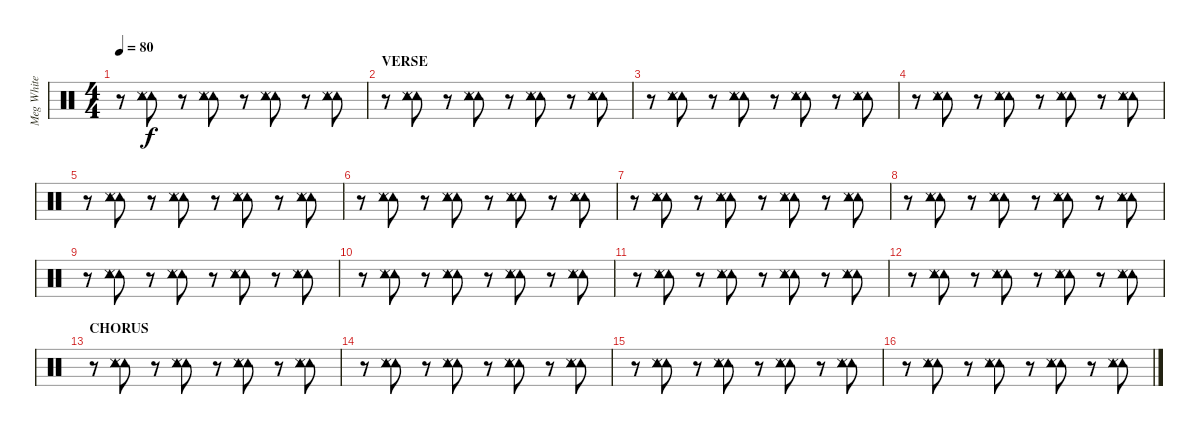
\track ("Meg White (Tambourine)" "Meg White ") {instrument percussion}
\staff {score}
\articulation defaults
\ts (4 4)
\tempo 80
\clef neutral
\ks c
r.8{dy f} ("Tambourine (hit)" "Tambourine (hit)" "Metronome (hit)").8 r.8 ("Tambourine (hit)" "Tambourine (hit)" "Metronome (hit)").8 r.8 ("Tambourine (hit)" "Tambourine (hit)" "Metronome (hit)").8 r.8 ("Tambourine (hit)" "Tambourine (hit)" "Metronome (hit)").8 |
\section ("" "VERSE")
r.8 ("Tambourine (hit)" "Tambourine (hit)" "Metronome (hit)").8 r.8 ("Tambourine (hit)" "Tambourine (hit)" "Metronome (hit)").8 r.8 ("Tambourine (hit)" "Tambourine (hit)" "Metronome (hit)").8 r.8 ("Tambourine (hit)" "Tambourine (hit)" "Metronome (hit)").8 |
r.8 ("Tambourine (hit)" "Tambourine (hit)" "Metronome (hit)").8 r.8 ("Tambourine (hit)" "Tambourine (hit)" "Metronome (hit)").8 r.8 ("Tambourine (hit)" "Tambourine (hit)" "Metronome (hit)").8 r.8 ("Tambourine (hit)" "Tambourine (hit)" "Metronome (hit)").8 |
r.8 ("Tambourine (hit)" "Tambourine (hit)" "Metronome (hit)").8 r.8 ("Tambourine (hit)" "Tambourine (hit)" "Metronome (hit)").8 r.8 ("Tambourine (hit)" "Tambourine (hit)" "Metronome (hit)").8 r.8 ("Tambourine (hit)" "Tambourine (hit)" "Metronome (hit)").8 |
r.8 ("Tambourine (hit)" "Tambourine (hit)" "Metronome (hit)").8 r.8 ("Tambourine (hit)" "Tambourine (hit)" "Metronome (hit)").8 r.8 ("Tambourine (hit)" "Tambourine (hit)" "Metronome (hit)").8 r.8 ("Tambourine (hit)" "Tambourine (hit)" "Metronome (hit)").8 |
r.8 ("Tambourine (hit)" "Tambourine (hit)" "Metronome (hit)").8 r.8 ("Tambourine (hit)" "Tambourine (hit)" "Metronome (hit)").8 r.8 ("Tambourine (hit)" "Tambourine (hit)" "Metronome (hit)").8 r.8 ("Tambourine (hit)" "Tambourine (hit)" "Metronome (hit)").8 |
r.8 ("Tambourine (hit)" "Tambourine (hit)" "Metronome (hit)").8 r.8 ("Tambourine (hit)" "Tambourine (hit)" "Metronome (hit)").8 r.8 ("Tambourine (hit)" "Tambourine (hit)" "Metronome (hit)").8 r.8 ("Tambourine (hit)" "Tambourine (hit)" "Metronome (hit)").8 |
r.8 ("Tambourine (hit)" "Tambourine (hit)" "Metronome (hit)").8 r.8 ("Tambourine (hit)" "Tambourine (hit)" "Metronome (hit)").8 r.8 ("Tambourine (hit)" "Tambourine (hit)" "Metronome (hit)").8 r.8 ("Tambourine (hit)" "Tambourine (hit)" "Metronome (hit)").8 |
r.8 ("Tambourine (hit)" "Tambourine (hit)" "Metronome (hit)").8 r.8 ("Tambourine (hit)" "Tambourine (hit)" "Metronome (hit)").8 r.8 ("Tambourine (hit)" "Tambourine (hit)" "Metronome (hit)").8 r.8 ("Tambourine (hit)" "Tambourine (hit)" "Metronome (hit)").8 |
r.8 ("Tambourine (hit)" "Tambourine (hit)" "Metronome (hit)").8 r.8 ("Tambourine (hit)" "Tambourine (hit)" "Metronome (hit)").8 r.8 ("Tambourine (hit)" "Tambourine (hit)" "Metronome (hit)").8 r.8 ("Tambourine (hit)" "Tambourine (hit)" "Metronome (hit)").8 |
r.8 ("Tambourine (hit)" "Tambourine (hit)" "Metronome (hit)").8 r.8 ("Tambourine (hit)" "Tambourine (hit)" "Metronome (hit)").8 r.8 ("Tambourine (hit)" "Tambourine (hit)" "Metronome (hit)").8 r.8 ("Tambourine (hit)" "Tambourine (hit)" "Metronome (hit)").8 |
r.8 ("Tambourine (hit)" "Tambourine (hit)" "Metronome (hit)").8 r.8 ("Tambourine (hit)" "Tambourine (hit)" "Metronome (hit)").8 r.8 ("Tambourine (hit)" "Tambourine (hit)" "Metronome (hit)").8 r.8 ("Tambourine (hit)" "Tambourine (hit)" "Metronome (hit)").8 |
\section ("" "CHORUS")
r.8 ("Tambourine (hit)" "Tambourine (hit)" "Metronome (hit)").8 r.8 ("Tambourine (hit)" "Tambourine (hit)" "Metronome (hit)").8 r.8 ("Tambourine (hit)" "Tambourine (hit)" "Metronome (hit)").8 r.8 ("Tambourine (hit)" "Tambourine (hit)" "Metronome (hit)").8 |
r.8 ("Tambourine (hit)" "Tambourine (hit)" "Metronome (hit)").8 r.8 ("Tambourine (hit)" "Tambourine (hit)" "Metronome (hit)").8 r.8 ("Tambourine (hit)" "Tambourine (hit)" "Metronome (hit)").8 r.8 ("Tambourine (hit)" "Tambourine (hit)" "Metronome (hit)").8 |
r.8 ("Tambourine (hit)" "Tambourine (hit)" "Metronome (hit)").8 r.8 ("Tambourine (hit)" "Tambourine (hit)" "Metronome (hit)").8 r.8 ("Tambourine (hit)" "Tambourine (hit)" "Metronome (hit)").8 r.8 ("Tambourine (hit)" "Tambourine (hit)" "Metronome (hit)").8 |
r.8 ("Tambourine (hit)" "Tambourine (hit)" "Metronome (hit)").8 r.8 ("Tambourine (hit)" "Tambourine (hit)" "Metronome (hit)").8 r.8 ("Tambourine (hit)" "Tambourine (hit)" "Metronome (hit)").8 r.8 ("Tambourine (hit)" "Tambourine (hit)" "Metronome (hit)").8
